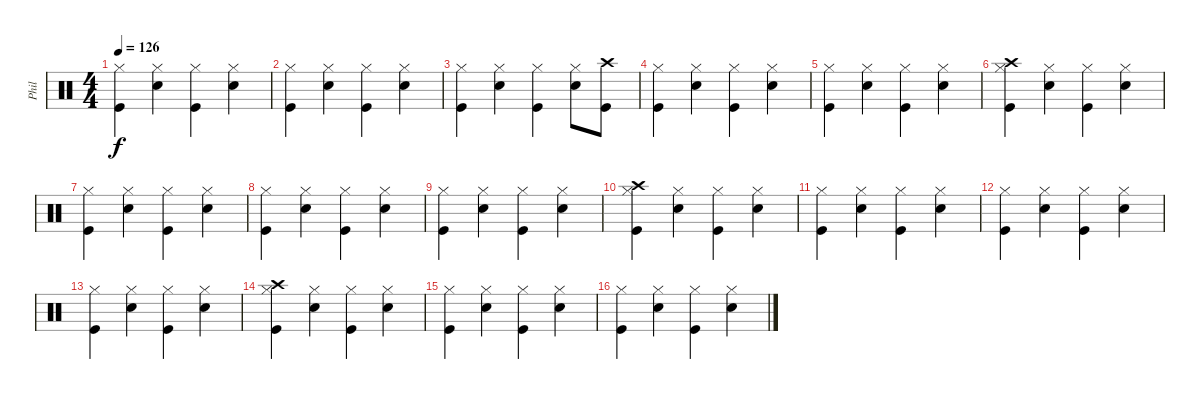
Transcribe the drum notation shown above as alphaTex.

\track ("Phil" "Phil") {instrument percussion}
\staff {score}
\articulation defaults
\ts (4 4)
\tempo 126
\clef neutral
\ks c
("Hi-Hat (closed)" "Kick (hit)").4{dy f} ("Hi-Hat (closed)" "Snare (hit) 2").4 ("Hi-Hat (closed)" "Kick (hit)").4 ("Hi-Hat (closed)" "Snare (hit) 2").4 |
("Hi-Hat (closed)" "Kick (hit)").4 ("Hi-Hat (closed)" "Snare (hit) 2").4 ("Hi-Hat (closed)" "Kick (hit)").4 ("Hi-Hat (closed)" "Snare (hit) 2").4 |
("Hi-Hat (closed)" "Kick (hit)").4 ("Hi-Hat (closed)" "Snare (hit) 2").4 ("Hi-Hat (closed)" "Kick (hit)").4 ("Hi-Hat (closed)" "Snare (hit) 2").8 ("Crash high (hit)" "Kick (hit)").8 |
("Hi-Hat (closed)" "Kick (hit)").4 ("Hi-Hat (closed)" "Snare (hit) 2").4 ("Hi-Hat (closed)" "Kick (hit)").4 ("Hi-Hat (closed)" "Snare (hit) 2").4 |
("Hi-Hat (closed)" "Kick (hit)").4 ("Hi-Hat (closed)" "Snare (hit) 2").4 ("Hi-Hat (closed)" "Kick (hit)").4 ("Hi-Hat (closed)" "Snare (hit) 2").4 |
("Hi-Hat (closed)" "Crash high (hit)" "Kick (hit)").4 ("Hi-Hat (closed)" "Snare (hit) 2").4 ("Hi-Hat (closed)" "Kick (hit)").4 ("Hi-Hat (closed)" "Snare (hit) 2").4 |
("Hi-Hat (closed)" "Kick (hit)").4 ("Hi-Hat (closed)" "Snare (hit) 2").4 ("Hi-Hat (closed)" "Kick (hit)").4 ("Hi-Hat (closed)" "Snare (hit) 2").4 |
("Hi-Hat (closed)" "Kick (hit)").4 ("Hi-Hat (closed)" "Snare (hit) 2").4 ("Hi-Hat (closed)" "Kick (hit)").4 ("Hi-Hat (closed)" "Snare (hit) 2").4 |
("Hi-Hat (closed)" "Kick (hit)").4 ("Hi-Hat (closed)" "Snare (hit) 2").4 ("Hi-Hat (closed)" "Kick (hit)").4 ("Hi-Hat (closed)" "Snare (hit) 2").4 |
("Hi-Hat (closed)" "Crash high (hit)" "Kick (hit)").4 ("Hi-Hat (closed)" "Snare (hit) 2").4 ("Hi-Hat (closed)" "Kick (hit)").4 ("Hi-Hat (closed)" "Snare (hit) 2").4 |
("Hi-Hat (closed)" "Kick (hit)").4 ("Hi-Hat (closed)" "Snare (hit) 2").4 ("Hi-Hat (closed)" "Kick (hit)").4 ("Hi-Hat (closed)" "Snare (hit) 2").4 |
("Hi-Hat (closed)" "Kick (hit)").4 ("Hi-Hat (closed)" "Snare (hit) 2").4 ("Hi-Hat (closed)" "Kick (hit)").4 ("Hi-Hat (closed)" "Snare (hit) 2").4 |
("Hi-Hat (closed)" "Kick (hit)").4 ("Hi-Hat (closed)" "Snare (hit) 2").4 ("Hi-Hat (closed)" "Kick (hit)").4 ("Hi-Hat (closed)" "Snare (hit) 2").4 |
("Hi-Hat (closed)" "Crash high (hit)" "Kick (hit)").4 ("Hi-Hat (closed)" "Snare (hit) 2").4 ("Hi-Hat (closed)" "Kick (hit)").4 ("Hi-Hat (closed)" "Snare (hit) 2").4 |
("Hi-Hat (closed)" "Kick (hit)").4 ("Hi-Hat (closed)" "Snare (hit) 2").4 ("Hi-Hat (closed)" "Kick (hit)").4 ("Hi-Hat (closed)" "Snare (hit) 2").4 |
("Hi-Hat (closed)" "Kick (hit)").4 ("Hi-Hat (closed)" "Snare (hit) 2").4 ("Hi-Hat (closed)" "Kick (hit)").4 ("Hi-Hat (closed)" "Snare (hit) 2").4
